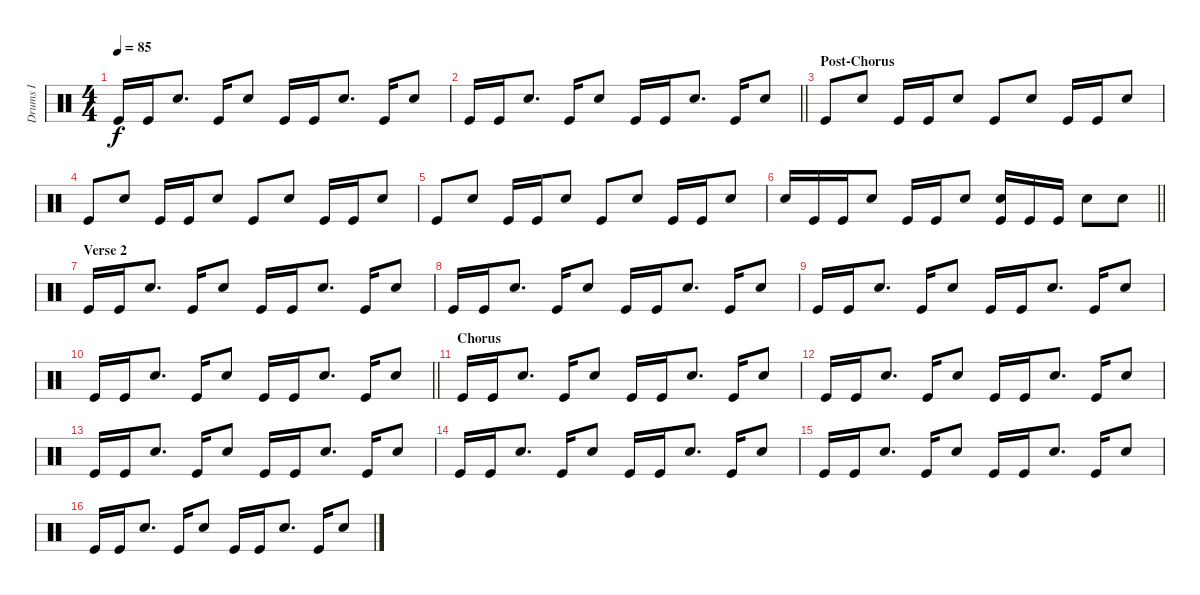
\track ("Drums I" "Drums I") {instrument percussion}
\staff {score}
\articulation defaults
\ts (4 4)
\tempo 85
\clef neutral
\ks c "Kick (hit)".16{dy f} "Kick (hit)".16 "Electric Snare (hit)".8{d} "Kick (hit)".16 "Electric Snare (hit)".8 "Kick (hit)".16 "Kick (hit)".16 "Electric Snare (hit)".8{d} "Kick (hit)".16 "Electric Snare (hit)".8
|
\barLineRight lightlight "Kick (hit)".16 "Kick (hit)".16 "Electric Snare (hit)".8{d} "Kick (hit)".16 "Electric Snare (hit)".8 "Kick (hit)".16 "Kick (hit)".16 "Electric Snare (hit)".8{d} "Kick (hit)".16 "Electric Snare (hit)".8
|
\section ("" "Post-Chorus")
"Kick (hit)".8 "Electric Snare (hit)".8 "Kick (hit)".16 "Kick (hit)".16 "Electric Snare (hit)".8 "Kick (hit)".8 "Electric Snare (hit)".8 "Kick (hit)".16 "Kick (hit)".16 "Electric Snare (hit)".8 |
"Kick (hit)".8 "Electric Snare (hit)".8 "Kick (hit)".16 "Kick (hit)".16 "Electric Snare (hit)".8 "Kick (hit)".8 "Electric Snare (hit)".8 "Kick (hit)".16 "Kick (hit)".16 "Electric Snare (hit)".8 |
"Kick (hit)".8 "Electric Snare (hit)".8 "Kick (hit)".16 "Kick (hit)".16 "Electric Snare (hit)".8 "Kick (hit)".8 "Electric Snare (hit)".8 "Kick (hit)".16 "Kick (hit)".16 "Electric Snare (hit)".8 |
\barLineRight lightlight "Electric Snare (hit)".16 "Kick (hit)".16 "Kick (hit)".16 "Electric Snare (hit)".8 "Kick (hit)".16 "Kick (hit)".16 "Electric Snare (hit)".8
("Electric Snare (hit)" "Kick (hit)").16 "Kick (hit)".16 "Kick (hit)".16 "Electric Snare (hit)".8 "Electric Snare (hit)".8 |
\section ("" "Verse 2")
"Kick (hit)".16 "Kick (hit)".16 "Electric Snare (hit)".8{d} "Kick (hit)".16 "Electric Snare (hit)".8 "Kick (hit)".16 "Kick (hit)".16 "Electric Snare (hit)".8{d} "Kick (hit)".16 "Electric Snare (hit)".8 |
"Kick (hit)".16 "Kick (hit)".16 "Electric Snare (hit)".8{d} "Kick (hit)".16 "Electric Snare (hit)".8 "Kick (hit)".16 "Kick (hit)".16 "Electric Snare (hit)".8{d} "Kick (hit)".16 "Electric Snare (hit)".8 |
"Kick (hit)".16 "Kick (hit)".16 "Electric Snare (hit)".8{d} "Kick (hit)".16 "Electric Snare (hit)".8 "Kick (hit)".16 "Kick (hit)".16 "Electric Snare (hit)".8{d} "Kick (hit)".16 "Electric Snare (hit)".8 |
\barLineRight lightlight "Kick (hit)".16 "Kick (hit)".16 "Electric Snare (hit)".8{d} "Kick (hit)".16 "Electric Snare (hit)".8 "Kick (hit)".16 "Kick (hit)".16 "Electric Snare (hit)".8{d} "Kick (hit)".16 "Electric Snare (hit)".8
|
\section ("" "Chorus")
"Kick (hit)".16 "Kick (hit)".16 "Electric Snare (hit)".8{d} "Kick (hit)".16 "Electric Snare (hit)".8 "Kick (hit)".16 "Kick (hit)".16 "Electric Snare (hit)".8{d} "Kick (hit)".16 "Electric Snare (hit)".8 |
"Kick (hit)".16 "Kick (hit)".16 "Electric Snare (hit)".8{d} "Kick (hit)".16 "Electric Snare (hit)".8 "Kick (hit)".16 "Kick (hit)".16 "Electric Snare (hit)".8{d} "Kick (hit)".16 "Electric Snare (hit)".8 |
"Kick (hit)".16 "Kick (hit)".16 "Electric Snare (hit)".8{d} "Kick (hit)".16 "Electric Snare (hit)".8 "Kick (hit)".16 "Kick (hit)".16 "Electric Snare (hit)".8{d} "Kick (hit)".16 "Electric Snare (hit)".8 |
"Kick (hit)".16 "Kick (hit)".16 "Electric Snare (hit)".8{d} "Kick (hit)".16 "Electric Snare (hit)".8 "Kick (hit)".16 "Kick (hit)".16 "Electric Snare (hit)".8{d} "Kick (hit)".16 "Electric Snare (hit)".8 |
"Kick (hit)".16 "Kick (hit)".16 "Electric Snare (hit)".8{d} "Kick (hit)".16 "Electric Snare (hit)".8 "Kick (hit)".16 "Kick (hit)".16 "Electric Snare (hit)".8{d} "Kick (hit)".16 "Electric Snare (hit)".8 |
"Kick (hit)".16 "Kick (hit)".16 "Electric Snare (hit)".8{d} "Kick (hit)".16 "Electric Snare (hit)".8 "Kick (hit)".16 "Kick (hit)".16 "Electric Snare (hit)".8{d} "Kick (hit)".16 "Electric Snare (hit)".8
